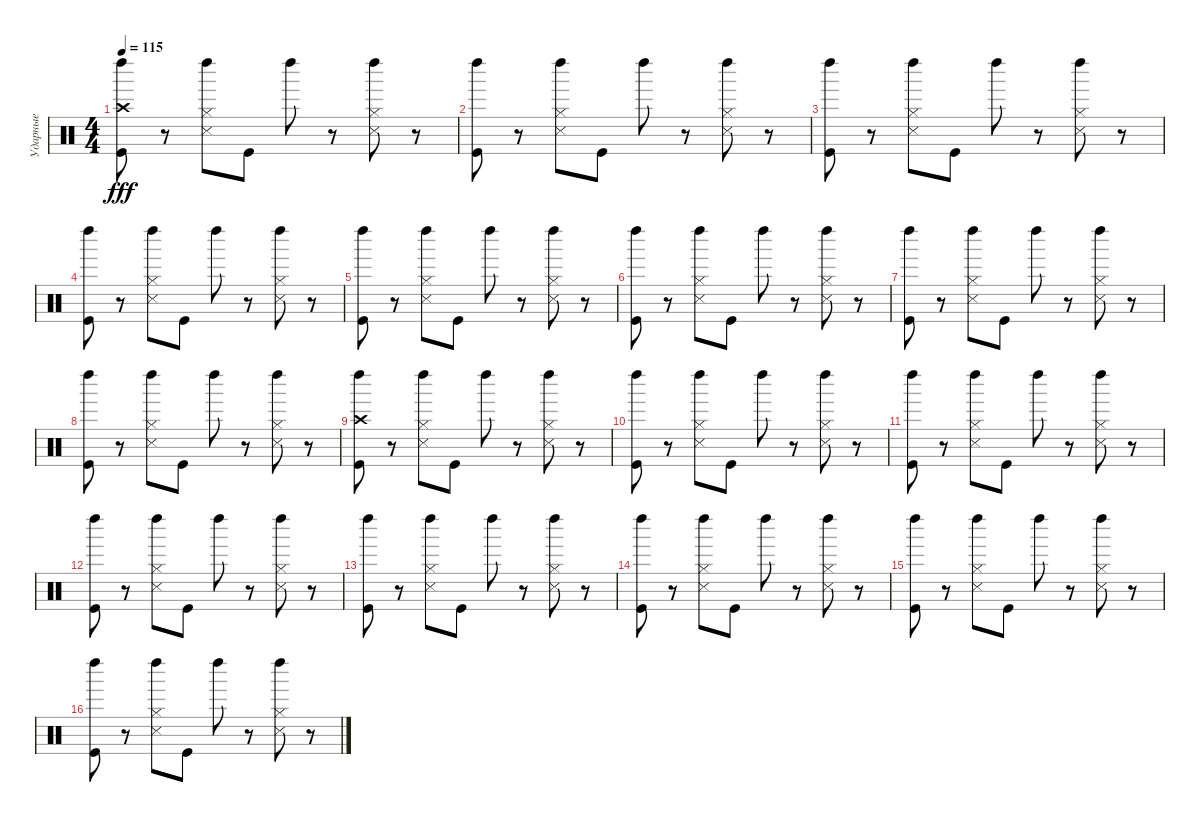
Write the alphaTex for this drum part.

\track ("Ударные" "Ударные") {instrument percussion}
\staff {score}
\articulation defaults
\ts (4 4)
\tempo 115
\clef neutral
\ks c
("Kick (hit)" "Crash high (hit)" "Left Maraca (hit)").8{dy fff} r.8 ("Hi-Hat (closed)" "Snare (side stick) 3" "Left Maraca (hit)").8 "Kick (hit)".8 "Left Maraca (hit)".8 r.8 ("Hi-Hat (closed)" "Snare (side stick) 3" "Left Maraca (hit)").8 r.8 |
("Kick (hit)" "Left Maraca (hit)").8 r.8 ("Hi-Hat (closed)" "Snare (side stick) 3" "Left Maraca (hit)").8 "Kick (hit)".8 "Left Maraca (hit)".8 r.8 ("Snare (side stick) 3" "Hi-Hat (closed)" "Left Maraca (hit)").8 r.8 |
("Kick (hit)" "Left Maraca (hit)").8 r.8 ("Hi-Hat (closed)" "Snare (side stick) 3" "Left Maraca (hit)").8 "Kick (hit)".8 "Left Maraca (hit)".8 r.8 ("Hi-Hat (closed)" "Snare (side stick) 3" "Left Maraca (hit)").8 r.8 |
("Kick (hit)" "Left Maraca (hit)").8 r.8 ("Hi-Hat (closed)" "Snare (side stick) 3" "Left Maraca (hit)").8 "Kick (hit)".8 "Left Maraca (hit)".8 r.8 ("Hi-Hat (closed)" "Snare (side stick) 3" "Left Maraca (hit)").8 r.8 |
("Kick (hit)" "Left Maraca (hit)").8 r.8 ("Hi-Hat (closed)" "Snare (side stick) 3" "Left Maraca (hit)").8 "Kick (hit)".8 "Left Maraca (hit)".8 r.8 ("Snare (side stick) 3" "Hi-Hat (closed)" "Left Maraca (hit)").8 r.8 |
("Kick (hit)" "Left Maraca (hit)").8 r.8 ("Hi-Hat (closed)" "Snare (side stick) 3" "Left Maraca (hit)").8 "Kick (hit)".8 "Left Maraca (hit)".8 r.8 ("Hi-Hat (closed)" "Snare (side stick) 3" "Left Maraca (hit)").8 r.8 |
("Kick (hit)" "Left Maraca (hit)").8 r.8 ("Snare (side stick) 3" "Hi-Hat (closed)" "Left Maraca (hit)").8 "Kick (hit)".8 "Left Maraca (hit)".8 r.8 ("Snare (side stick) 3" "Hi-Hat (closed)" "Left Maraca (hit)").8 r.8 |
("Kick (hit)" "Left Maraca (hit)").8 r.8 ("Hi-Hat (closed)" "Snare (side stick) 3" "Left Maraca (hit)").8 "Kick (hit)".8 "Left Maraca (hit)".8 r.8 ("Hi-Hat (closed)" "Snare (side stick) 3" "Left Maraca (hit)").8 r.8 |
("Kick (hit)" "Left Maraca (hit)" "Crash high (hit)").8 r.8 ("Hi-Hat (closed)" "Snare (side stick) 3" "Left Maraca (hit)").8 "Kick (hit)".8 "Left Maraca (hit)".8 r.8 ("Hi-Hat (closed)" "Snare (side stick) 3" "Left Maraca (hit)").8 r.8 |
("Kick (hit)" "Left Maraca (hit)").8 r.8 ("Snare (side stick) 3" "Hi-Hat (closed)" "Left Maraca (hit)").8 "Kick (hit)".8 "Left Maraca (hit)".8 r.8 ("Hi-Hat (closed)" "Snare (side stick) 3" "Left Maraca (hit)").8 r.8 |
("Kick (hit)" "Left Maraca (hit)").8 r.8 ("Hi-Hat (closed)" "Snare (side stick) 3" "Left Maraca (hit)").8 "Kick (hit)".8 "Left Maraca (hit)".8 r.8 ("Snare (side stick) 3" "Hi-Hat (closed)" "Left Maraca (hit)").8 r.8 |
("Kick (hit)" "Left Maraca (hit)").8 r.8 ("Snare (side stick) 3" "Hi-Hat (closed)" "Left Maraca (hit)").8 "Kick (hit)".8 "Left Maraca (hit)".8 r.8 ("Snare (side stick) 3" "Hi-Hat (closed)" "Left Maraca (hit)").8 r.8 |
("Kick (hit)" "Left Maraca (hit)").8 r.8 ("Hi-Hat (closed)" "Snare (side stick) 3" "Left Maraca (hit)").8 "Kick (hit)".8 "Left Maraca (hit)".8 r.8 ("Hi-Hat (closed)" "Snare (side stick) 3" "Left Maraca (hit)").8 r.8 |
("Kick (hit)" "Left Maraca (hit)").8 r.8 ("Hi-Hat (closed)" "Snare (side stick) 3" "Left Maraca (hit)").8 "Kick (hit)".8 "Left Maraca (hit)".8 r.8 ("Hi-Hat (closed)" "Snare (side stick) 3" "Left Maraca (hit)").8 r.8 |
("Kick (hit)" "Left Maraca (hit)").8 r.8 ("Hi-Hat (closed)" "Snare (side stick) 3" "Left Maraca (hit)").8 "Kick (hit)".8 "Left Maraca (hit)".8 r.8 ("Snare (side stick) 3" "Hi-Hat (closed)" "Left Maraca (hit)").8 r.8 |
("Kick (hit)" "Left Maraca (hit)").8 r.8 ("Hi-Hat (closed)" "Snare (side stick) 3" "Left Maraca (hit)").8 "Kick (hit)".8 "Left Maraca (hit)".8 r.8 ("Hi-Hat (closed)" "Snare (side stick) 3" "Left Maraca (hit)").8 r.8
